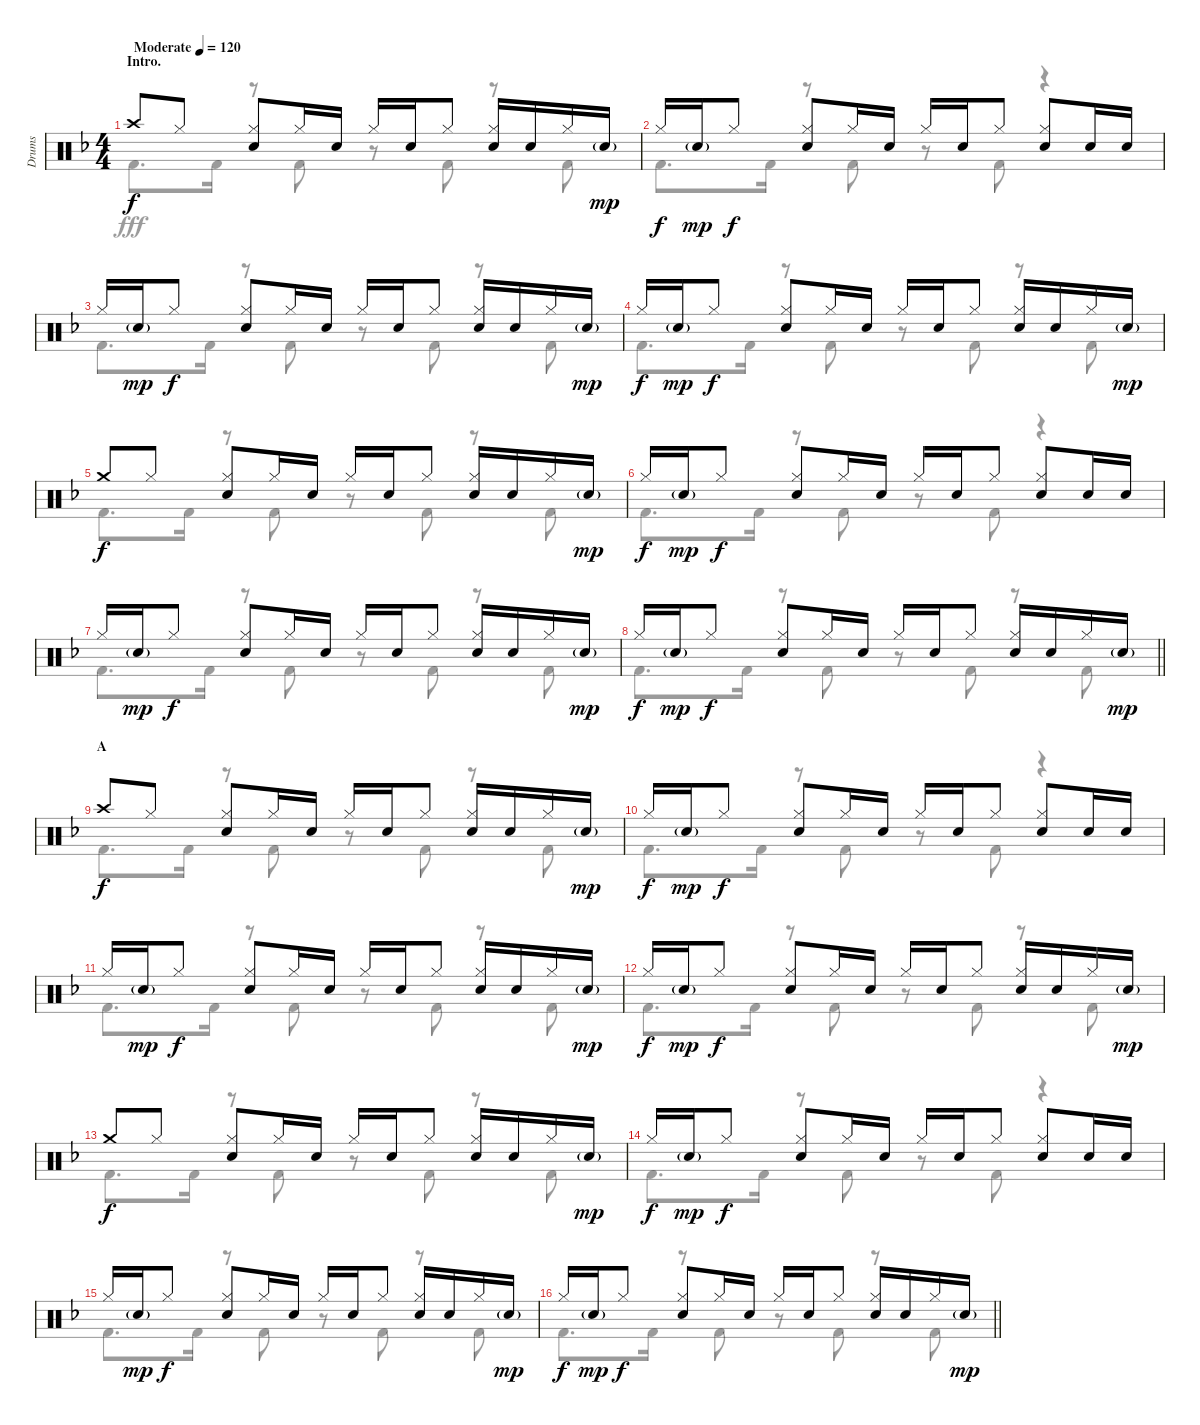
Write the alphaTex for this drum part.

\track ("Drums" "Drums") {instrument percussion}
\staff {score}
\articulation defaults
\voice
\ts (4 4)
\section ("" "Intro.")
\tempo (120 "Moderate")
\clef neutral
\ks f "Crash high (hit)".8{dy f} "Hi-Hat (closed)".8
("Hi-Hat (closed)" "Snare (hit) 2").8 "Hi-Hat (closed)".16 "Snare (hit) 2".16 "Hi-Hat (closed)".16 "Snare (hit) 2".16 "Hi-Hat (closed)".8 ("Hi-Hat (closed)" "Snare (hit) 2").16 "Snare (hit) 2".16 "Hi-Hat (closed)".16 "Snare (hit) 2"{g}.16{dy mp} |
"Hi-Hat (closed)".16{dy f} "Snare (hit) 2"{g}.16{dy mp} "Hi-Hat (closed)".8{dy f} ("Hi-Hat (closed)" "Snare (hit) 2").8 "Hi-Hat (closed)".16 "Snare (hit) 2".16 "Hi-Hat (closed)".16 "Snare (hit) 2".16 "Hi-Hat (closed)".8 ("Hi-Hat (closed)" "Snare (hit) 2").8 "Snare (hit) 2".16 "Snare (hit) 2".16 |
"Hi-Hat (closed)".16 "Snare (hit) 2"{g}.16{dy mp} "Hi-Hat (closed)".8{dy f} ("Hi-Hat (closed)" "Snare (hit) 2").8 "Hi-Hat (closed)".16 "Snare (hit) 2".16 "Hi-Hat (closed)".16 "Snare (hit) 2".16 "Hi-Hat (closed)".8 ("Hi-Hat (closed)" "Snare (hit) 2").16 "Snare (hit) 2".16 "Hi-Hat (closed)".16 "Snare (hit) 2"{g}.16{dy mp} |
"Hi-Hat (closed)".16{dy f} "Snare (hit) 2"{g}.16{dy mp} "Hi-Hat (closed)".8{dy f} ("Hi-Hat (closed)" "Snare (hit) 2").8 "Hi-Hat (closed)".16 "Snare (hit) 2".16 "Hi-Hat (closed)".16 "Snare (hit) 2".16 "Hi-Hat (closed)".8 ("Hi-Hat (closed)" "Snare (hit) 2").16 "Snare (hit) 2".16 "Hi-Hat (closed)".16 "Snare (hit) 2"{g}.16{dy mp} |
"Crash medium (hit)".8{dy f} "Hi-Hat (closed)".8 ("Hi-Hat (closed)" "Snare (hit) 2").8 "Hi-Hat (closed)".16 "Snare (hit) 2".16 "Hi-Hat (closed)".16 "Snare (hit) 2".16 "Hi-Hat (closed)".8 ("Hi-Hat (closed)" "Snare (hit) 2").16 "Snare (hit) 2".16 "Hi-Hat (closed)".16 "Snare (hit) 2"{g}.16{dy mp} |
"Hi-Hat (closed)".16{dy f} "Snare (hit) 2"{g}.16{dy mp} "Hi-Hat (closed)".8{dy f} ("Hi-Hat (closed)" "Snare (hit) 2").8 "Hi-Hat (closed)".16 "Snare (hit) 2".16 "Hi-Hat (closed)".16 "Snare (hit) 2".16 "Hi-Hat (closed)".8 ("Hi-Hat (closed)" "Snare (hit) 2").8 "Snare (hit) 2".16 "Snare (hit) 2".16 |
"Hi-Hat (closed)".16 "Snare (hit) 2"{g}.16{dy mp} "Hi-Hat (closed)".8{dy f} ("Hi-Hat (closed)" "Snare (hit) 2").8 "Hi-Hat (closed)".16 "Snare (hit) 2".16 "Hi-Hat (closed)".16 "Snare (hit) 2".16 "Hi-Hat (closed)".8 ("Hi-Hat (closed)" "Snare (hit) 2").16 "Snare (hit) 2".16 "Hi-Hat (closed)".16 "Snare (hit) 2"{g}.16{dy mp} |
\barLineRight lightlight "Hi-Hat (closed)".16{dy f} "Snare (hit) 2"{g}.16{dy mp} "Hi-Hat (closed)".8{dy f}
("Hi-Hat (closed)" "Snare (hit) 2").8 "Hi-Hat (closed)".16 "Snare (hit) 2".16 "Hi-Hat (closed)".16 "Snare (hit) 2".16 "Hi-Hat (closed)".8 ("Hi-Hat (closed)" "Snare (hit) 2").16 "Snare (hit) 2".16 "Hi-Hat (closed)".16 "Snare (hit) 2"{g}.16{dy mp} |
\section ("" "A")
"Crash high (hit)".8{dy f} "Hi-Hat (closed)".8 ("Hi-Hat (closed)" "Snare (hit) 2").8 "Hi-Hat (closed)".16 "Snare (hit) 2".16 "Hi-Hat (closed)".16 "Snare (hit) 2".16 "Hi-Hat (closed)".8 ("Hi-Hat (closed)" "Snare (hit) 2").16 "Snare (hit) 2".16 "Hi-Hat (closed)".16 "Snare (hit) 2"{g}.16{dy mp} |
"Hi-Hat (closed)".16{dy f} "Snare (hit) 2"{g}.16{dy mp} "Hi-Hat (closed)".8{dy f} ("Hi-Hat (closed)" "Snare (hit) 2").8 "Hi-Hat (closed)".16 "Snare (hit) 2".16 "Hi-Hat (closed)".16 "Snare (hit) 2".16 "Hi-Hat (closed)".8 ("Hi-Hat (closed)" "Snare (hit) 2").8 "Snare (hit) 2".16 "Snare (hit) 2".16 |
"Hi-Hat (closed)".16 "Snare (hit) 2"{g}.16{dy mp} "Hi-Hat (closed)".8{dy f} ("Hi-Hat (closed)" "Snare (hit) 2").8 "Hi-Hat (closed)".16 "Snare (hit) 2".16 "Hi-Hat (closed)".16 "Snare (hit) 2".16 "Hi-Hat (closed)".8 ("Hi-Hat (closed)" "Snare (hit) 2").16 "Snare (hit) 2".16 "Hi-Hat (closed)".16 "Snare (hit) 2"{g}.16{dy mp} |
"Hi-Hat (closed)".16{dy f} "Snare (hit) 2"{g}.16{dy mp} "Hi-Hat (closed)".8{dy f} ("Hi-Hat (closed)" "Snare (hit) 2").8 "Hi-Hat (closed)".16 "Snare (hit) 2".16 "Hi-Hat (closed)".16 "Snare (hit) 2".16 "Hi-Hat (closed)".8 ("Hi-Hat (closed)" "Snare (hit) 2").16 "Snare (hit) 2".16 "Hi-Hat (closed)".16 "Snare (hit) 2"{g}.16{dy mp} |
"Crash medium (hit)".8{dy f} "Hi-Hat (closed)".8 ("Hi-Hat (closed)" "Snare (hit) 2").8 "Hi-Hat (closed)".16 "Snare (hit) 2".16 "Hi-Hat (closed)".16 "Snare (hit) 2".16 "Hi-Hat (closed)".8 ("Hi-Hat (closed)" "Snare (hit) 2").16 "Snare (hit) 2".16 "Hi-Hat (closed)".16 "Snare (hit) 2"{g}.16{dy mp} |
"Hi-Hat (closed)".16{dy f} "Snare (hit) 2"{g}.16{dy mp} "Hi-Hat (closed)".8{dy f} ("Hi-Hat (closed)" "Snare (hit) 2").8 "Hi-Hat (closed)".16 "Snare (hit) 2".16 "Hi-Hat (closed)".16 "Snare (hit) 2".16 "Hi-Hat (closed)".8 ("Hi-Hat (closed)" "Snare (hit) 2").8 "Snare (hit) 2".16 "Snare (hit) 2".16 |
"Hi-Hat (closed)".16 "Snare (hit) 2"{g}.16{dy mp} "Hi-Hat (closed)".8{dy f} ("Hi-Hat (closed)" "Snare (hit) 2").8 "Hi-Hat (closed)".16 "Snare (hit) 2".16 "Hi-Hat (closed)".16 "Snare (hit) 2".16 "Hi-Hat (closed)".8 ("Hi-Hat (closed)" "Snare (hit) 2").16 "Snare (hit) 2".16 "Hi-Hat (closed)".16 "Snare (hit) 2"{g}.16{dy mp} |
\barLineRight lightlight "Hi-Hat (closed)".16{dy f} "Snare (hit) 2"{g}.16{dy mp} "Hi-Hat (closed)".8{dy f}
("Hi-Hat (closed)" "Snare (hit) 2").8 "Hi-Hat (closed)".16 "Snare (hit) 2".16 "Hi-Hat (closed)".16 "Snare (hit) 2".16 "Hi-Hat (closed)".8 ("Hi-Hat (closed)" "Snare (hit) 2").16 "Snare (hit) 2".16 "Hi-Hat (closed)".16 "Snare (hit) 2"{g}.16{dy mp}
\voice
\clef neutral
\ottava regular
\simile none
\ks f "Kick (hit) 2".8{d dy fff} "Kick (hit) 2".16
r.8 "Kick (hit) 2".8 r.8 "Kick (hit) 2".8 r.8 "Kick (hit) 2".8 |
"Kick (hit) 2".8{d} "Kick (hit) 2".16 r.8 "Kick (hit) 2".8 r.8 "Kick (hit) 2".8 r.4 |
"Kick (hit) 2".8{d} "Kick (hit) 2".16 r.8 "Kick (hit) 2".8 r.8 "Kick (hit) 2".8 r.8 "Kick (hit) 2".8 |
"Kick (hit) 2".8{d} "Kick (hit) 2".16 r.8 "Kick (hit) 2".8 r.8 "Kick (hit) 2".8 r.8 "Kick (hit) 2".8 |
"Kick (hit) 2".8{d} "Kick (hit) 2".16 r.8 "Kick (hit) 2".8 r.8 "Kick (hit) 2".8 r.8 "Kick (hit) 2".8 |
"Kick (hit) 2".8{d} "Kick (hit) 2".16 r.8 "Kick (hit) 2".8 r.8 "Kick (hit) 2".8 r.4 |
"Kick (hit) 2".8{d} "Kick (hit) 2".16 r.8 "Kick (hit) 2".8 r.8 "Kick (hit) 2".8 r.8 "Kick (hit) 2".8 |
\barLineRight lightlight "Kick (hit) 2".8{d} "Kick (hit) 2".16
r.8 "Kick (hit) 2".8 r.8 "Kick (hit) 2".8 r.8 "Kick (hit) 2".8 |
"Kick (hit) 2".8{d} "Kick (hit) 2".16 r.8 "Kick (hit) 2".8 r.8 "Kick (hit) 2".8 r.8 "Kick (hit) 2".8 |
"Kick (hit) 2".8{d} "Kick (hit) 2".16 r.8 "Kick (hit) 2".8 r.8 "Kick (hit) 2".8 r.4 |
"Kick (hit) 2".8{d} "Kick (hit) 2".16 r.8 "Kick (hit) 2".8 r.8 "Kick (hit) 2".8 r.8 "Kick (hit) 2".8 |
"Kick (hit) 2".8{d} "Kick (hit) 2".16 r.8 "Kick (hit) 2".8 r.8 "Kick (hit) 2".8 r.8 "Kick (hit) 2".8 |
"Kick (hit) 2".8{d} "Kick (hit) 2".16 r.8 "Kick (hit) 2".8 r.8 "Kick (hit) 2".8 r.8 "Kick (hit) 2".8 |
"Kick (hit) 2".8{d} "Kick (hit) 2".16 r.8 "Kick (hit) 2".8 r.8 "Kick (hit) 2".8 r.4 |
"Kick (hit) 2".8{d} "Kick (hit) 2".16 r.8 "Kick (hit) 2".8 r.8 "Kick (hit) 2".8 r.8 "Kick (hit) 2".8 |
\barLineRight lightlight "Kick (hit) 2".8{d} "Kick (hit) 2".16
r.8 "Kick (hit) 2".8 r.8 "Kick (hit) 2".8 r.8 "Kick (hit) 2".8
